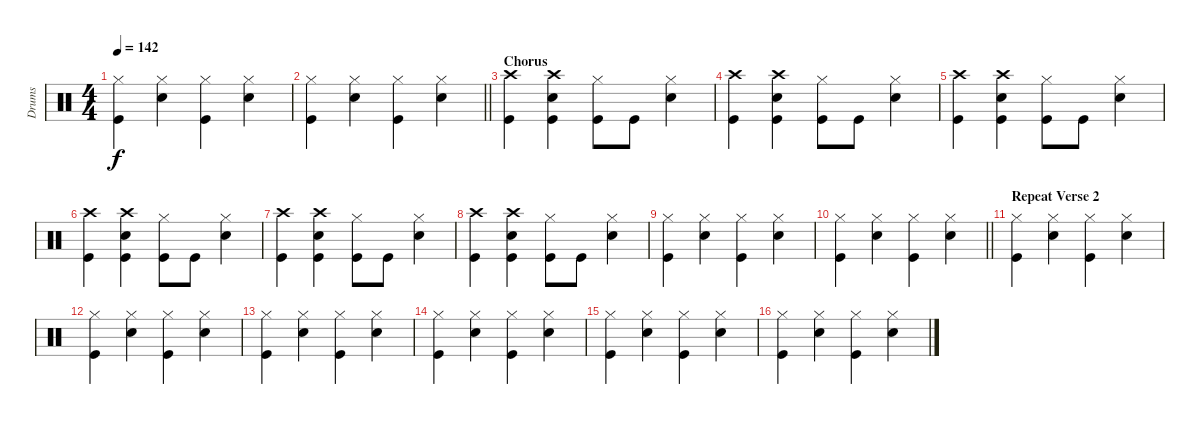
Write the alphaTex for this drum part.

\track ("Drums" "Drums") {instrument percussion}
\staff {score}
\articulation defaults
\ts (4 4)
\tempo 142
\clef neutral
\ks c
("Hi-Hat (closed)" "Kick (hit)").4{dy f} ("Hi-Hat (closed)" "Snare (hit) 2").4 ("Hi-Hat (closed)" "Kick (hit)").4 ("Hi-Hat (closed)" "Snare (hit) 2").4 |
\barLineRight lightlight
("Hi-Hat (closed)" "Kick (hit)").4 ("Hi-Hat (closed)" "Snare (hit) 2").4 ("Hi-Hat (closed)" "Kick (hit)").4 ("Hi-Hat (closed)" "Snare (hit) 2").4 |
\section ("" "Chorus")
("Crash high (hit)" "Kick (hit)").4 ("Crash high (hit)" "Snare (hit) 2" "Kick (hit)").4 ("Hi-Hat (closed)" "Kick (hit)").8 "Kick (hit)".8 ("Hi-Hat (closed)" "Snare (hit) 2").4 |
("Crash high (hit)" "Kick (hit)").4 ("Crash high (hit)" "Snare (hit) 2" "Kick (hit)").4 ("Hi-Hat (closed)" "Kick (hit)").8 "Kick (hit)".8 ("Hi-Hat (closed)" "Snare (hit) 2").4 |
("Crash high (hit)" "Kick (hit)").4 ("Crash high (hit)" "Snare (hit) 2" "Kick (hit)").4 ("Hi-Hat (closed)" "Kick (hit)").8 "Kick (hit)".8 ("Hi-Hat (closed)" "Snare (hit) 2").4 |
("Crash high (hit)" "Kick (hit)").4 ("Crash high (hit)" "Snare (hit) 2" "Kick (hit)").4 ("Hi-Hat (closed)" "Kick (hit)").8 "Kick (hit)".8 ("Hi-Hat (closed)" "Snare (hit) 2").4 |
("Crash high (hit)" "Kick (hit)").4 ("Crash high (hit)" "Snare (hit) 2" "Kick (hit)").4 ("Hi-Hat (closed)" "Kick (hit)").8 "Kick (hit)".8 ("Hi-Hat (closed)" "Snare (hit) 2").4 |
("Crash high (hit)" "Kick (hit)").4 ("Crash high (hit)" "Snare (hit) 2" "Kick (hit)").4 ("Hi-Hat (closed)" "Kick (hit)").8 "Kick (hit)".8 ("Hi-Hat (closed)" "Snare (hit) 2").4 |
("Hi-Hat (closed)" "Kick (hit)").4 ("Hi-Hat (closed)" "Snare (hit) 2").4 ("Hi-Hat (closed)" "Kick (hit)").4 ("Hi-Hat (closed)" "Snare (hit) 2").4 |
\barLineRight lightlight
("Hi-Hat (closed)" "Kick (hit)").4 ("Hi-Hat (closed)" "Snare (hit) 2").4 ("Hi-Hat (closed)" "Kick (hit)").4 ("Hi-Hat (closed)" "Snare (hit) 2").4 |
\section ("" "Repeat Verse 2")
("Hi-Hat (closed)" "Kick (hit)").4 ("Hi-Hat (closed)" "Snare (hit) 2").4 ("Hi-Hat (closed)" "Kick (hit)").4 ("Hi-Hat (closed)" "Snare (hit) 2").4 |
("Hi-Hat (closed)" "Kick (hit)").4 ("Hi-Hat (closed)" "Snare (hit) 2").4 ("Hi-Hat (closed)" "Kick (hit)").4 ("Hi-Hat (closed)" "Snare (hit) 2").4 |
("Hi-Hat (closed)" "Kick (hit)").4 ("Hi-Hat (closed)" "Snare (hit) 2").4 ("Hi-Hat (closed)" "Kick (hit)").4 ("Hi-Hat (closed)" "Snare (hit) 2").4 |
("Hi-Hat (closed)" "Kick (hit)").4 ("Hi-Hat (closed)" "Snare (hit) 2").4 ("Hi-Hat (closed)" "Kick (hit)").4 ("Hi-Hat (closed)" "Snare (hit) 2").4 |
("Hi-Hat (closed)" "Kick (hit)").4 ("Hi-Hat (closed)" "Snare (hit) 2").4 ("Hi-Hat (closed)" "Kick (hit)").4 ("Hi-Hat (closed)" "Snare (hit) 2").4 |
("Hi-Hat (closed)" "Kick (hit)").4 ("Hi-Hat (closed)" "Snare (hit) 2").4 ("Hi-Hat (closed)" "Kick (hit)").4 ("Hi-Hat (closed)" "Snare (hit) 2").4
